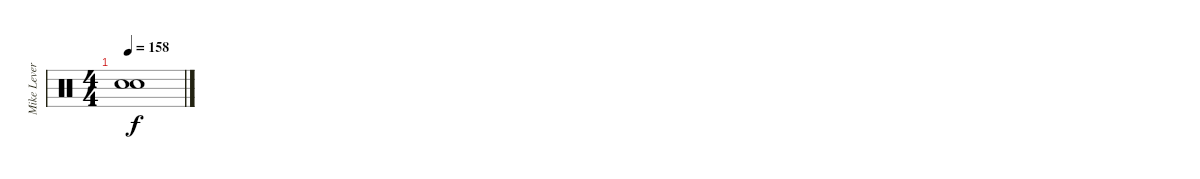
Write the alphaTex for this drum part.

\track ("Mike Leverence - Drums" "Mike Lever") {instrument percussion}
\staff {score}
\articulation defaults
\ts (4 4)
\tempo 158
\clef neutral
\ks c
("Snare (hit)"{t} "Snare (hit)"{t}).1{dy f}
